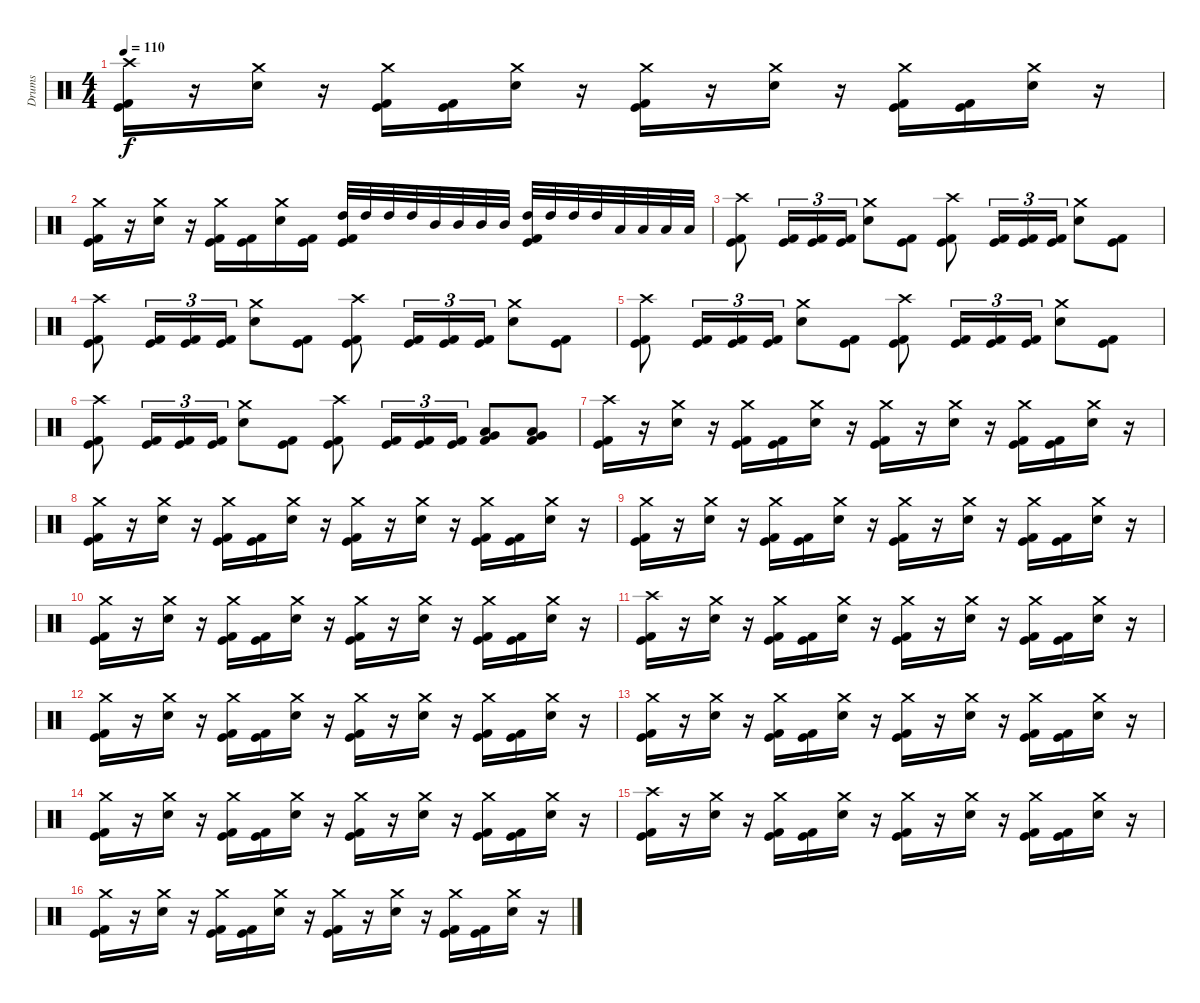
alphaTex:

\track ("Drums" "Drums") {instrument percussion}
\staff {score}
\articulation defaults
\ts (4 4)
\tempo 110
\clef neutral
\ks c
("Crash high (hit)" "Kick (hit)" "Kick (hit) 2").16{dy f} r.16 ("Crash medium (hit)" "Electric Snare (hit)").16 r.16 ("Crash medium (hit)" "Kick (hit)" "Kick (hit) 2").16 ("Kick (hit)" "Kick (hit) 2").16 ("Crash medium (hit)" "Electric Snare (hit)").16 r.16 ("Crash medium (hit)" "Kick (hit)" "Kick (hit) 2").16 r.16 ("Crash medium (hit)" "Electric Snare (hit)").16 r.16 ("Crash medium (hit)" "Kick (hit)" "Kick (hit) 2").16 ("Kick (hit)" "Kick (hit) 2").16 ("Crash medium (hit)" "Electric Snare (hit)").16 r.16 |
("Crash medium (hit)" "Kick (hit)" "Kick (hit) 2").16 r.16 ("Crash medium (hit)" "Electric Snare (hit)").16 r.16 ("Crash medium (hit)" "Kick (hit)" "Kick (hit) 2").16 ("Kick (hit)" "Kick (hit) 2").16 ("Crash medium (hit)" "Electric Snare (hit)").16 ("Kick (hit)" "Kick (hit) 2").16 ("High Tom (hit)" "Kick (hit)" "Kick (hit) 2").32 "High Tom (hit)".32 "High Tom (hit)".32 "High Tom (hit)".32 "Mid Tom (hit)".32 "Mid Tom (hit)".32 "Mid Tom (hit)".32 "Mid Tom (hit)".32 ("High Tom (hit)" "Kick (hit)" "Kick (hit) 2").32 "High Tom (hit)".32 "High Tom (hit)".32 "High Tom (hit)".32 "Low Tom (hit)".32 "Low Tom (hit)".32 "Low Tom (hit)".32 "Low Tom (hit)".32 |
("Crash high (hit)" "Kick (hit)" "Kick (hit) 2").8 ("Kick (hit)" "Kick (hit) 2").16{tu (3 2)} ("Kick (hit)" "Kick (hit) 2").16{tu (3 2)} ("Kick (hit)" "Kick (hit) 2").16{tu (3 2)} ("Crash medium (hit)" "Electric Snare (hit)").8 ("Kick (hit)" "Kick (hit) 2").8 ("Crash high (hit)" "Kick (hit)" "Kick (hit) 2").8 ("Kick (hit)" "Kick (hit) 2").16{tu (3 2)} ("Kick (hit)" "Kick (hit) 2").16{tu (3 2)} ("Kick (hit)" "Kick (hit) 2").16{tu (3 2)} ("Crash medium (hit)" "Electric Snare (hit)").8 ("Kick (hit)" "Kick (hit) 2").8 |
("Crash high (hit)" "Kick (hit)" "Kick (hit) 2").8 ("Kick (hit)" "Kick (hit) 2").16{tu (3 2)} ("Kick (hit)" "Kick (hit) 2").16{tu (3 2)} ("Kick (hit)" "Kick (hit) 2").16{tu (3 2)} ("Crash medium (hit)" "Electric Snare (hit)").8 ("Kick (hit)" "Kick (hit) 2").8 ("Crash high (hit)" "Kick (hit)" "Kick (hit) 2").8 ("Kick (hit)" "Kick (hit) 2").16{tu (3 2)} ("Kick (hit)" "Kick (hit) 2").16{tu (3 2)} ("Kick (hit)" "Kick (hit) 2").16{tu (3 2)} ("Crash medium (hit)" "Electric Snare (hit)").8 ("Kick (hit)" "Kick (hit) 2").8 |
("Crash high (hit)" "Kick (hit)" "Kick (hit) 2").8 ("Kick (hit)" "Kick (hit) 2").16{tu (3 2)} ("Kick (hit)" "Kick (hit) 2").16{tu (3 2)} ("Kick (hit)" "Kick (hit) 2").16{tu (3 2)} ("Crash medium (hit)" "Electric Snare (hit)").8 ("Kick (hit)" "Kick (hit) 2").8 ("Crash high (hit)" "Kick (hit)" "Kick (hit) 2").8 ("Kick (hit)" "Kick (hit) 2").16{tu (3 2)} ("Kick (hit)" "Kick (hit) 2").16{tu (3 2)} ("Kick (hit)" "Kick (hit) 2").16{tu (3 2)} ("Crash medium (hit)" "Electric Snare (hit)").8 ("Kick (hit)" "Kick (hit) 2").8 |
("Crash high (hit)" "Kick (hit)" "Kick (hit) 2").8 ("Kick (hit)" "Kick (hit) 2").16{tu (3 2)} ("Kick (hit)" "Kick (hit) 2").16{tu (3 2)} ("Kick (hit)" "Kick (hit) 2").16{tu (3 2)} ("Crash medium (hit)" "Electric Snare (hit)").8 ("Kick (hit)" "Kick (hit) 2").8 ("Crash high (hit)" "Kick (hit)" "Kick (hit) 2").8 ("Kick (hit)" "Kick (hit) 2").16{tu (3 2)} ("Kick (hit)" "Kick (hit) 2").16{tu (3 2)} ("Kick (hit)" "Kick (hit) 2").16{tu (3 2)} ("Low Tom (hit)" "Very Low Tom (hit)" "Kick (hit) 2").8 ("Low Tom (hit)" "Very Low Tom (hit)" "Kick (hit) 2").8 |
("Crash high (hit)" "Kick (hit)" "Kick (hit) 2").16 r.16 ("Crash medium (hit)" "Electric Snare (hit)").16 r.16 ("Crash medium (hit)" "Kick (hit)" "Kick (hit) 2").16 ("Kick (hit)" "Kick (hit) 2").16 ("Crash medium (hit)" "Electric Snare (hit)").16 r.16 ("Crash medium (hit)" "Kick (hit)" "Kick (hit) 2").16 r.16 ("Crash medium (hit)" "Electric Snare (hit)").16 r.16 ("Crash medium (hit)" "Kick (hit)" "Kick (hit) 2").16 ("Kick (hit)" "Kick (hit) 2").16 ("Crash medium (hit)" "Electric Snare (hit)").16 r.16 |
("Crash medium (hit)" "Kick (hit)" "Kick (hit) 2").16 r.16 ("Crash medium (hit)" "Electric Snare (hit)").16 r.16 ("Crash medium (hit)" "Kick (hit)" "Kick (hit) 2").16 ("Kick (hit)" "Kick (hit) 2").16 ("Crash medium (hit)" "Electric Snare (hit)").16 r.16 ("Crash medium (hit)" "Kick (hit)" "Kick (hit) 2").16 r.16 ("Crash medium (hit)" "Electric Snare (hit)").16 r.16 ("Crash medium (hit)" "Kick (hit)" "Kick (hit) 2").16 ("Kick (hit)" "Kick (hit) 2").16 ("Crash medium (hit)" "Electric Snare (hit)").16 r.16 |
("Crash medium (hit)" "Kick (hit)" "Kick (hit) 2").16 r.16 ("Crash medium (hit)" "Electric Snare (hit)").16 r.16 ("Crash medium (hit)" "Kick (hit)" "Kick (hit) 2").16 ("Kick (hit)" "Kick (hit) 2").16 ("Crash medium (hit)" "Electric Snare (hit)").16 r.16 ("Crash medium (hit)" "Kick (hit)" "Kick (hit) 2").16 r.16 ("Crash medium (hit)" "Electric Snare (hit)").16 r.16 ("Crash medium (hit)" "Kick (hit)" "Kick (hit) 2").16 ("Kick (hit)" "Kick (hit) 2").16 ("Crash medium (hit)" "Electric Snare (hit)").16 r.16 |
("Crash medium (hit)" "Kick (hit)" "Kick (hit) 2").16 r.16 ("Crash medium (hit)" "Electric Snare (hit)").16 r.16 ("Crash medium (hit)" "Kick (hit)" "Kick (hit) 2").16 ("Kick (hit)" "Kick (hit) 2").16 ("Crash medium (hit)" "Electric Snare (hit)").16 r.16 ("Crash medium (hit)" "Kick (hit)" "Kick (hit) 2").16 r.16 ("Crash medium (hit)" "Electric Snare (hit)").16 r.16 ("Crash medium (hit)" "Kick (hit)" "Kick (hit) 2").16 ("Kick (hit)" "Kick (hit) 2").16 ("Crash medium (hit)" "Electric Snare (hit)").16 r.16 |
("Crash high (hit)" "Kick (hit)" "Kick (hit) 2").16 r.16 ("Crash medium (hit)" "Electric Snare (hit)").16 r.16 ("Crash medium (hit)" "Kick (hit)" "Kick (hit) 2").16 ("Kick (hit)" "Kick (hit) 2").16 ("Crash medium (hit)" "Electric Snare (hit)").16 r.16 ("Crash medium (hit)" "Kick (hit)" "Kick (hit) 2").16 r.16 ("Crash medium (hit)" "Electric Snare (hit)").16 r.16 ("Crash medium (hit)" "Kick (hit)" "Kick (hit) 2").16 ("Kick (hit)" "Kick (hit) 2").16 ("Crash medium (hit)" "Electric Snare (hit)").16 r.16 |
("Crash medium (hit)" "Kick (hit)" "Kick (hit) 2").16 r.16 ("Crash medium (hit)" "Electric Snare (hit)").16 r.16 ("Crash medium (hit)" "Kick (hit)" "Kick (hit) 2").16 ("Kick (hit)" "Kick (hit) 2").16 ("Crash medium (hit)" "Electric Snare (hit)").16 r.16 ("Crash medium (hit)" "Kick (hit)" "Kick (hit) 2").16 r.16 ("Crash medium (hit)" "Electric Snare (hit)").16 r.16 ("Crash medium (hit)" "Kick (hit)" "Kick (hit) 2").16 ("Kick (hit)" "Kick (hit) 2").16 ("Crash medium (hit)" "Electric Snare (hit)").16 r.16 |
("Crash medium (hit)" "Kick (hit)" "Kick (hit) 2").16 r.16 ("Crash medium (hit)" "Electric Snare (hit)").16 r.16 ("Crash medium (hit)" "Kick (hit)" "Kick (hit) 2").16 ("Kick (hit)" "Kick (hit) 2").16 ("Crash medium (hit)" "Electric Snare (hit)").16 r.16 ("Crash medium (hit)" "Kick (hit)" "Kick (hit) 2").16 r.16 ("Crash medium (hit)" "Electric Snare (hit)").16 r.16 ("Crash medium (hit)" "Kick (hit)" "Kick (hit) 2").16 ("Kick (hit)" "Kick (hit) 2").16 ("Crash medium (hit)" "Electric Snare (hit)").16 r.16 |
("Crash medium (hit)" "Kick (hit)" "Kick (hit) 2").16 r.16 ("Crash medium (hit)" "Electric Snare (hit)").16 r.16 ("Crash medium (hit)" "Kick (hit)" "Kick (hit) 2").16 ("Kick (hit)" "Kick (hit) 2").16 ("Crash medium (hit)" "Electric Snare (hit)").16 r.16 ("Crash medium (hit)" "Kick (hit)" "Kick (hit) 2").16 r.16 ("Crash medium (hit)" "Electric Snare (hit)").16 r.16 ("Crash medium (hit)" "Kick (hit)" "Kick (hit) 2").16 ("Kick (hit)" "Kick (hit) 2").16 ("Crash medium (hit)" "Electric Snare (hit)").16 r.16 |
("Crash high (hit)" "Kick (hit)" "Kick (hit) 2").16 r.16 ("Crash medium (hit)" "Electric Snare (hit)").16 r.16 ("Crash medium (hit)" "Kick (hit)" "Kick (hit) 2").16 ("Kick (hit)" "Kick (hit) 2").16 ("Crash medium (hit)" "Electric Snare (hit)").16 r.16 ("Crash medium (hit)" "Kick (hit)" "Kick (hit) 2").16 r.16 ("Crash medium (hit)" "Electric Snare (hit)").16 r.16 ("Crash medium (hit)" "Kick (hit)" "Kick (hit) 2").16 ("Kick (hit)" "Kick (hit) 2").16 ("Crash medium (hit)" "Electric Snare (hit)").16 r.16 |
("Crash medium (hit)" "Kick (hit)" "Kick (hit) 2").16 r.16 ("Crash medium (hit)" "Electric Snare (hit)").16 r.16 ("Crash medium (hit)" "Kick (hit)" "Kick (hit) 2").16 ("Kick (hit)" "Kick (hit) 2").16 ("Crash medium (hit)" "Electric Snare (hit)").16 r.16 ("Crash medium (hit)" "Kick (hit)" "Kick (hit) 2").16 r.16 ("Crash medium (hit)" "Electric Snare (hit)").16 r.16 ("Crash medium (hit)" "Kick (hit)" "Kick (hit) 2").16 ("Kick (hit)" "Kick (hit) 2").16 ("Crash medium (hit)" "Electric Snare (hit)").16 r.16
